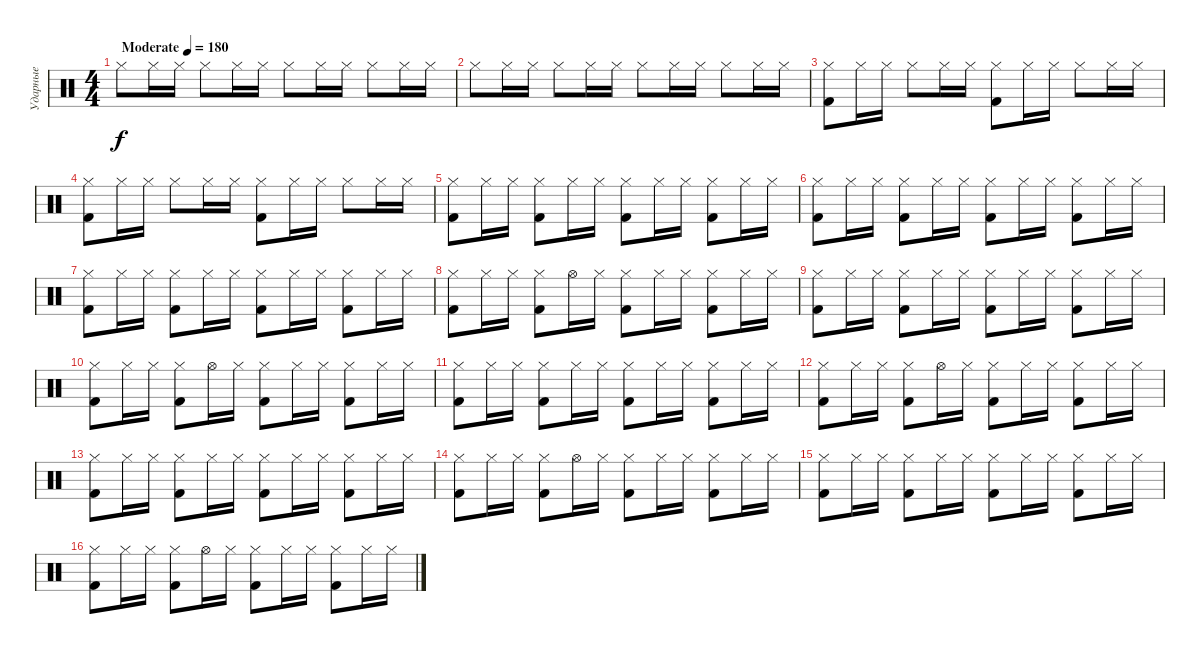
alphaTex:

\track ("Ударные" "Ударные") {instrument percussion}
\staff {score}
\articulation defaults
\ts (4 4)
\tempo (180 "Moderate")
\clef neutral
\ks c "Hi-Hat (closed)".8{dy f} "Hi-Hat (closed)".16 "Hi-Hat (closed)".16 "Hi-Hat (closed)".8 "Hi-Hat (closed)".16 "Hi-Hat (closed)".16 "Hi-Hat (closed)".8 "Hi-Hat (closed)".16 "Hi-Hat (closed)".16 "Hi-Hat (closed)".8 "Hi-Hat (closed)".16 "Hi-Hat (closed)".16
|
"Hi-Hat (closed)".8 "Hi-Hat (closed)".16 "Hi-Hat (closed)".16 "Hi-Hat (closed)".8 "Hi-Hat (closed)".16 "Hi-Hat (closed)".16 "Hi-Hat (closed)".8 "Hi-Hat (closed)".16 "Hi-Hat (closed)".16 "Hi-Hat (closed)".8 "Hi-Hat (closed)".16 "Hi-Hat (closed)".16 |
("Hi-Hat (closed)" "Kick (hit) 2").8 "Hi-Hat (closed)".16 "Hi-Hat (closed)".16 "Hi-Hat (closed)".8 "Hi-Hat (closed)".16 "Hi-Hat (closed)".16 ("Hi-Hat (closed)" "Kick (hit) 2").8 "Hi-Hat (closed)".16 "Hi-Hat (closed)".16 "Hi-Hat (closed)".8 "Hi-Hat (closed)".16 "Hi-Hat (closed)".16 |
("Hi-Hat (closed)" "Kick (hit) 2").8 "Hi-Hat (closed)".16 "Hi-Hat (closed)".16 "Hi-Hat (closed)".8 "Hi-Hat (closed)".16 "Hi-Hat (closed)".16 ("Hi-Hat (closed)" "Kick (hit) 2").8 "Hi-Hat (closed)".16 "Hi-Hat (closed)".16 "Hi-Hat (closed)".8 "Hi-Hat (closed)".16 "Hi-Hat (closed)".16 |
("Hi-Hat (closed)" "Kick (hit) 2").8 "Hi-Hat (closed)".16 "Hi-Hat (closed)".16 ("Hi-Hat (closed)" "Kick (hit) 2").8 "Hi-Hat (closed)".16 "Hi-Hat (closed)".16 ("Hi-Hat (closed)" "Kick (hit) 2").8 "Hi-Hat (closed)".16 "Hi-Hat (closed)".16 ("Hi-Hat (closed)" "Kick (hit) 2").8 "Hi-Hat (closed)".16 "Hi-Hat (closed)".16 |
("Hi-Hat (closed)" "Kick (hit) 2").8 "Hi-Hat (closed)".16 "Hi-Hat (closed)".16 ("Hi-Hat (closed)" "Kick (hit) 2").8 "Hi-Hat (closed)".16 "Hi-Hat (closed)".16 ("Hi-Hat (closed)" "Kick (hit) 2").8 "Hi-Hat (closed)".16 "Hi-Hat (closed)".16 ("Hi-Hat (closed)" "Kick (hit) 2").8 "Hi-Hat (closed)".16 "Hi-Hat (closed)".16 |
("Hi-Hat (closed)" "Kick (hit) 2").8 "Hi-Hat (closed)".16 "Hi-Hat (closed)".16 ("Hi-Hat (closed)" "Kick (hit) 2").8 "Hi-Hat (closed)".16 "Hi-Hat (closed)".16 ("Hi-Hat (closed)" "Kick (hit) 2").8 "Hi-Hat (closed)".16 "Hi-Hat (closed)".16 ("Hi-Hat (closed)" "Kick (hit) 2").8 "Hi-Hat (closed)".16 "Hi-Hat (closed)".16 |
("Hi-Hat (closed)" "Kick (hit) 2").8 "Hi-Hat (closed)".16 "Hi-Hat (closed)".16 ("Hi-Hat (closed)" "Kick (hit) 2").8 "Hi-Hat (open)".16 "Hi-Hat (closed)".16 ("Hi-Hat (closed)" "Kick (hit) 2").8 "Hi-Hat (closed)".16 "Hi-Hat (closed)".16 ("Hi-Hat (closed)" "Kick (hit) 2").8 "Hi-Hat (closed)".16 "Hi-Hat (closed)".16 |
("Hi-Hat (closed)" "Kick (hit) 2").8 "Hi-Hat (closed)".16 "Hi-Hat (closed)".16 ("Hi-Hat (closed)" "Kick (hit) 2").8 "Hi-Hat (closed)".16 "Hi-Hat (closed)".16 ("Hi-Hat (closed)" "Kick (hit) 2").8 "Hi-Hat (closed)".16 "Hi-Hat (closed)".16 ("Hi-Hat (closed)" "Kick (hit) 2").8 "Hi-Hat (closed)".16 "Hi-Hat (closed)".16 |
("Hi-Hat (closed)" "Kick (hit) 2").8 "Hi-Hat (closed)".16 "Hi-Hat (closed)".16 ("Hi-Hat (closed)" "Kick (hit) 2").8 "Hi-Hat (open)".16 "Hi-Hat (closed)".16 ("Hi-Hat (closed)" "Kick (hit) 2").8 "Hi-Hat (closed)".16 "Hi-Hat (closed)".16 ("Hi-Hat (closed)" "Kick (hit) 2").8 "Hi-Hat (closed)".16 "Hi-Hat (closed)".16 |
("Hi-Hat (closed)" "Kick (hit) 2").8 "Hi-Hat (closed)".16 "Hi-Hat (closed)".16 ("Hi-Hat (closed)" "Kick (hit) 2").8 "Hi-Hat (closed)".16 "Hi-Hat (closed)".16 ("Hi-Hat (closed)" "Kick (hit) 2").8 "Hi-Hat (closed)".16 "Hi-Hat (closed)".16 ("Hi-Hat (closed)" "Kick (hit) 2").8 "Hi-Hat (closed)".16 "Hi-Hat (closed)".16 |
("Hi-Hat (closed)" "Kick (hit) 2").8 "Hi-Hat (closed)".16 "Hi-Hat (closed)".16 ("Hi-Hat (closed)" "Kick (hit) 2").8 "Hi-Hat (open)".16 "Hi-Hat (closed)".16 ("Hi-Hat (closed)" "Kick (hit) 2").8 "Hi-Hat (closed)".16 "Hi-Hat (closed)".16 ("Hi-Hat (closed)" "Kick (hit) 2").8 "Hi-Hat (closed)".16 "Hi-Hat (closed)".16 |
("Hi-Hat (closed)" "Kick (hit) 2").8 "Hi-Hat (closed)".16 "Hi-Hat (closed)".16 ("Hi-Hat (closed)" "Kick (hit) 2").8 "Hi-Hat (closed)".16 "Hi-Hat (closed)".16 ("Hi-Hat (closed)" "Kick (hit) 2").8 "Hi-Hat (closed)".16 "Hi-Hat (closed)".16 ("Hi-Hat (closed)" "Kick (hit) 2").8 "Hi-Hat (closed)".16 "Hi-Hat (closed)".16 |
("Hi-Hat (closed)" "Kick (hit) 2").8 "Hi-Hat (closed)".16 "Hi-Hat (closed)".16 ("Hi-Hat (closed)" "Kick (hit) 2").8 "Hi-Hat (open)".16 "Hi-Hat (closed)".16 ("Hi-Hat (closed)" "Kick (hit) 2").8 "Hi-Hat (closed)".16 "Hi-Hat (closed)".16 ("Hi-Hat (closed)" "Kick (hit) 2").8 "Hi-Hat (closed)".16 "Hi-Hat (closed)".16 |
("Hi-Hat (closed)" "Kick (hit) 2").8 "Hi-Hat (closed)".16 "Hi-Hat (closed)".16 ("Hi-Hat (closed)" "Kick (hit) 2").8 "Hi-Hat (closed)".16 "Hi-Hat (closed)".16 ("Hi-Hat (closed)" "Kick (hit) 2").8 "Hi-Hat (closed)".16 "Hi-Hat (closed)".16 ("Hi-Hat (closed)" "Kick (hit) 2").8 "Hi-Hat (closed)".16 "Hi-Hat (closed)".16 |
("Hi-Hat (closed)" "Kick (hit) 2").8 "Hi-Hat (closed)".16 "Hi-Hat (closed)".16 ("Hi-Hat (closed)" "Kick (hit) 2").8 "Hi-Hat (open)".16 "Hi-Hat (closed)".16 ("Hi-Hat (closed)" "Kick (hit) 2").8 "Hi-Hat (closed)".16 "Hi-Hat (closed)".16 ("Hi-Hat (closed)" "Kick (hit) 2").8 "Hi-Hat (closed)".16 "Hi-Hat (closed)".16
